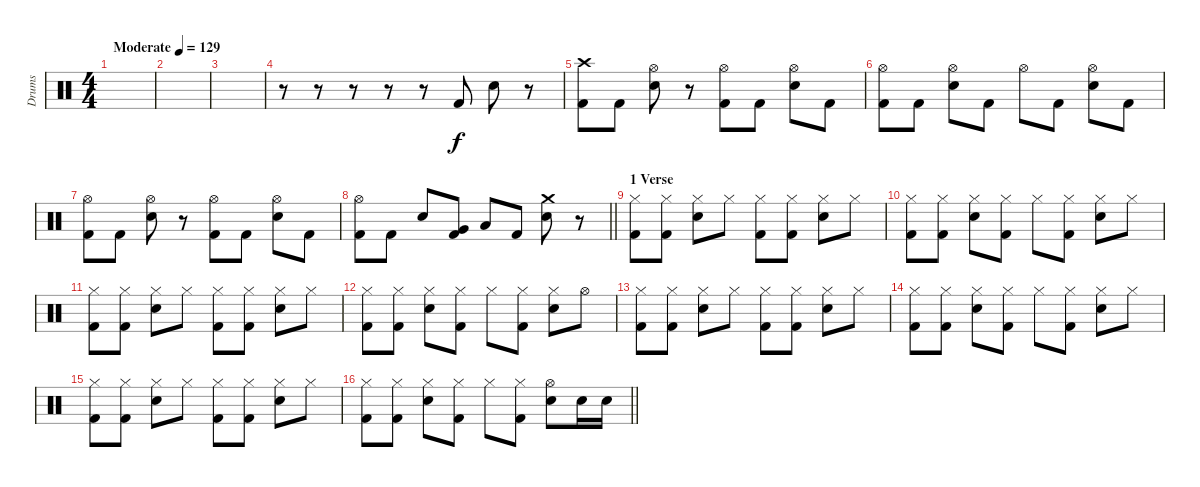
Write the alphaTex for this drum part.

\track ("Drums" "Drums") {instrument percussion}
\staff {score}
\articulation defaults
\ts (4 4)
\tempo (129 "Moderate")
\clef neutral
\ks c
|
|
|
r.8 r.8 r.8 r.8 r.8 "Kick (hit) 2".8 "Electric Snare (hit)".8 r.8 |
("Crash high (hit)" "Kick (hit) 2").8 "Kick (hit) 2".8 ("Hi-Hat (open)" "Electric Snare (hit)").8 r.8 ("Hi-Hat (open)" "Kick (hit) 2").8 "Kick (hit) 2".8 ("Hi-Hat (open)" "Electric Snare (hit)").8 "Kick (hit) 2".8 |
("Hi-Hat (open)" "Kick (hit) 2").8 "Kick (hit) 2".8 ("Hi-Hat (open)" "Electric Snare (hit)").8 "Kick (hit) 2".8 "Hi-Hat (open)".8 "Kick (hit) 2".8 ("Hi-Hat (open)" "Electric Snare (hit)").8 "Kick (hit) 2".8 |
("Hi-Hat (open)" "Kick (hit) 2").8 "Kick (hit) 2".8 ("Hi-Hat (open)" "Electric Snare (hit)").8 r.8 ("Hi-Hat (open)" "Kick (hit) 2").8 "Kick (hit) 2".8 ("Hi-Hat (open)" "Electric Snare (hit)").8 "Kick (hit) 2".8 |
\barLineRight lightlight
("Hi-Hat (open)" "Kick (hit) 2").8 "Kick (hit) 2".8 "Electric Snare (hit)".8 ("Very Low Tom (hit)" "Kick (hit) 2").8 "Low Tom (hit)".8 "Kick (hit) 2".8 ("Crash medium (hit)" "Electric Snare (hit)").8 r.8 |
\section ("" "1 Verse")
("Hi-Hat (closed)" "Kick (hit) 2").8 ("Hi-Hat (closed)" "Kick (hit) 2").8 ("Hi-Hat (closed)" "Electric Snare (hit)").8 "Hi-Hat (closed)".8 ("Hi-Hat (closed)" "Kick (hit) 2").8 ("Hi-Hat (closed)" "Kick (hit) 2").8 ("Hi-Hat (closed)" "Electric Snare (hit)").8 "Hi-Hat (closed)".8 |
("Hi-Hat (closed)" "Kick (hit) 2").8 ("Hi-Hat (closed)" "Kick (hit) 2").8 ("Hi-Hat (closed)" "Electric Snare (hit)").8 ("Hi-Hat (closed)" "Kick (hit) 2").8 "Hi-Hat (closed)".8 ("Hi-Hat (closed)" "Kick (hit) 2").8 ("Hi-Hat (closed)" "Electric Snare (hit)").8 "Hi-Hat (closed)".8 |
("Hi-Hat (closed)" "Kick (hit) 2").8 ("Hi-Hat (closed)" "Kick (hit) 2").8 ("Hi-Hat (closed)" "Electric Snare (hit)").8 "Hi-Hat (closed)".8 ("Hi-Hat (closed)" "Kick (hit) 2").8 ("Hi-Hat (closed)" "Kick (hit) 2").8 ("Hi-Hat (closed)" "Electric Snare (hit)").8 "Hi-Hat (closed)".8 |
("Hi-Hat (closed)" "Kick (hit) 2").8 ("Hi-Hat (closed)" "Kick (hit) 2").8 ("Hi-Hat (closed)" "Electric Snare (hit)").8 ("Hi-Hat (closed)" "Kick (hit) 2").8 "Hi-Hat (closed)".8 ("Hi-Hat (closed)" "Kick (hit) 2").8 ("Hi-Hat (closed)" "Electric Snare (hit)").8 "Hi-Hat (open)".8 |
("Hi-Hat (closed)" "Kick (hit) 2").8 ("Hi-Hat (closed)" "Kick (hit) 2").8 ("Hi-Hat (closed)" "Electric Snare (hit)").8 "Hi-Hat (closed)".8 ("Hi-Hat (closed)" "Kick (hit) 2").8 ("Hi-Hat (closed)" "Kick (hit) 2").8 ("Hi-Hat (closed)" "Electric Snare (hit)").8 "Hi-Hat (closed)".8 |
("Hi-Hat (closed)" "Kick (hit) 2").8 ("Hi-Hat (closed)" "Kick (hit) 2").8 ("Hi-Hat (closed)" "Electric Snare (hit)").8 ("Hi-Hat (closed)" "Kick (hit) 2").8 "Hi-Hat (closed)".8 ("Hi-Hat (closed)" "Kick (hit) 2").8 ("Hi-Hat (closed)" "Electric Snare (hit)").8 "Hi-Hat (closed)".8 |
("Hi-Hat (closed)" "Kick (hit) 2").8 ("Hi-Hat (closed)" "Kick (hit) 2").8 ("Hi-Hat (closed)" "Electric Snare (hit)").8 "Hi-Hat (closed)".8 ("Hi-Hat (closed)" "Kick (hit) 2").8 ("Hi-Hat (closed)" "Kick (hit) 2").8 ("Hi-Hat (closed)" "Electric Snare (hit)").8 "Hi-Hat (closed)".8 |
\barLineRight lightlight
("Hi-Hat (closed)" "Kick (hit) 2").8 ("Hi-Hat (closed)" "Kick (hit) 2").8 ("Hi-Hat (closed)" "Electric Snare (hit)").8 ("Hi-Hat (closed)" "Kick (hit) 2").8 "Hi-Hat (closed)".8 ("Hi-Hat (closed)" "Kick (hit) 2").8 ("Hi-Hat (open)" "Electric Snare (hit)").8 "Electric Snare (hit)".16 "Electric Snare (hit)".16
